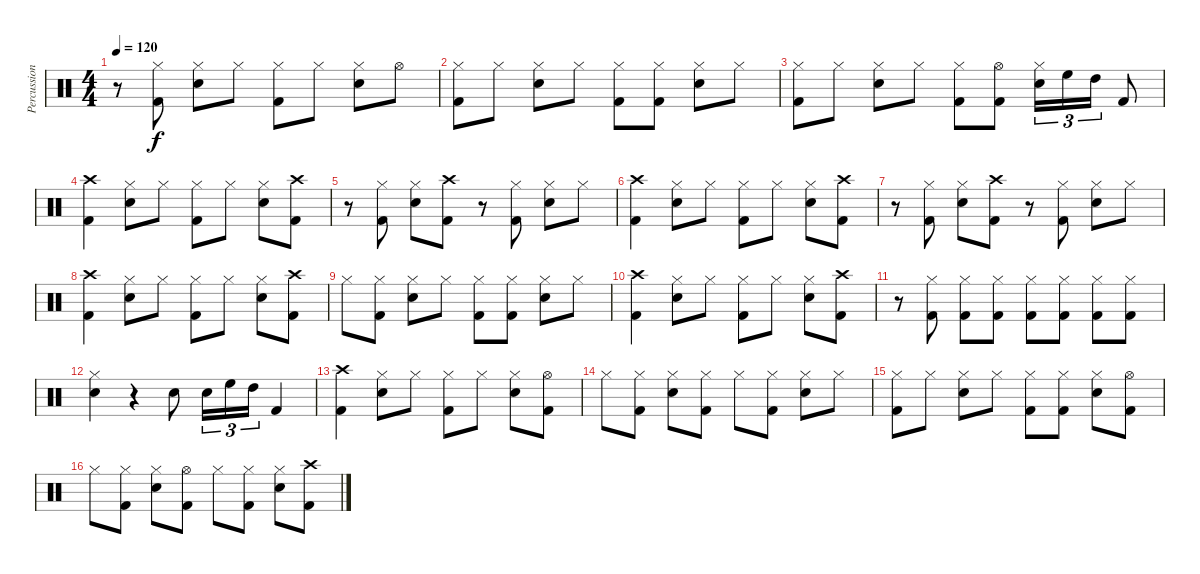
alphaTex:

\track ("Percussion" "Percussion") {instrument percussion}
\staff {score}
\articulation defaults
\ts (4 4)
\tempo 120
\clef neutral
\ks c
r.8{dy f} ("Hi-Hat (closed)" "Kick (hit) 2").8 ("Hi-Hat (closed)" "Snare (hit) 2").8 "Hi-Hat (closed)".8 ("Hi-Hat (closed)" "Kick (hit) 2").8 "Hi-Hat (closed)".8 ("Hi-Hat (closed)" "Snare (hit) 2").8 "Hi-Hat (open)".8 |
("Hi-Hat (closed)" "Kick (hit) 2").8 "Hi-Hat (closed)".8 ("Hi-Hat (closed)" "Snare (hit) 2").8 "Hi-Hat (closed)".8 ("Hi-Hat (closed)" "Kick (hit) 2").8 ("Hi-Hat (closed)" "Kick (hit) 2").8 ("Hi-Hat (closed)" "Snare (hit) 2").8 "Hi-Hat (closed)".8 |
("Hi-Hat (closed)" "Kick (hit) 2").8 "Hi-Hat (closed)".8 ("Hi-Hat (closed)" "Snare (hit) 2").8 "Hi-Hat (closed)".8 ("Hi-Hat (closed)" "Kick (hit) 2").8 ("Hi-Hat (open)" "Kick (hit) 2").8 ("Hi-Hat (closed)" "Snare (hit) 2").16{tu (3 2)} "High Floor Tom (hit)".16{tu (3 2)} "High Tom (hit)".16{tu (3 2)} "Kick (hit) 2".8 |
("Crash high (hit)" "Kick (hit) 2").4 ("Hi-Hat (closed)" "Snare (hit) 2").8 "Hi-Hat (closed)".8 ("Hi-Hat (closed)" "Kick (hit) 2").8 "Hi-Hat (closed)".8 ("Hi-Hat (closed)" "Snare (hit) 2").8 ("Crash high (hit)" "Kick (hit) 2").8 |
r.8 ("Hi-Hat (closed)" "Kick (hit) 2").8 ("Hi-Hat (closed)" "Snare (hit) 2").8 ("Crash high (hit)" "Kick (hit) 2").8 r.8 ("Hi-Hat (closed)" "Kick (hit) 2").8 ("Hi-Hat (closed)" "Snare (hit) 2").8 "Hi-Hat (closed)".8 |
("Crash high (hit)" "Kick (hit) 2").4 ("Hi-Hat (closed)" "Snare (hit) 2").8 "Hi-Hat (closed)".8 ("Hi-Hat (closed)" "Kick (hit) 2").8 "Hi-Hat (closed)".8 ("Hi-Hat (closed)" "Snare (hit) 2").8 ("Crash high (hit)" "Kick (hit) 2").8 |
r.8 ("Hi-Hat (closed)" "Kick (hit) 2").8 ("Hi-Hat (closed)" "Snare (hit) 2").8 ("Crash high (hit)" "Kick (hit) 2").8 r.8 ("Hi-Hat (closed)" "Kick (hit) 2").8 ("Hi-Hat (closed)" "Snare (hit) 2").8 "Hi-Hat (closed)".8 |
("Crash high (hit)" "Kick (hit) 2").4 ("Hi-Hat (closed)" "Snare (hit) 2").8 "Hi-Hat (closed)".8 ("Hi-Hat (closed)" "Kick (hit) 2").8 "Hi-Hat (closed)".8 ("Hi-Hat (closed)" "Snare (hit) 2").8 ("Crash high (hit)" "Kick (hit) 2").8 |
"Hi-Hat (closed)".8 ("Hi-Hat (closed)" "Kick (hit) 2").8 ("Hi-Hat (closed)" "Snare (hit) 2").8 "Hi-Hat (closed)".8 ("Hi-Hat (closed)" "Kick (hit) 2").8 ("Hi-Hat (closed)" "Kick (hit) 2").8 ("Hi-Hat (closed)" "Snare (hit) 2").8 "Hi-Hat (closed)".8 |
("Crash high (hit)" "Kick (hit) 2").4 ("Hi-Hat (closed)" "Snare (hit) 2").8 "Hi-Hat (closed)".8 ("Hi-Hat (closed)" "Kick (hit) 2").8 "Hi-Hat (closed)".8 ("Hi-Hat (closed)" "Snare (hit) 2").8 ("Crash high (hit)" "Kick (hit) 2").8 |
r.8 ("Hi-Hat (closed)" "Kick (hit) 2").8 ("Hi-Hat (closed)" "Kick (hit) 2").8 ("Hi-Hat (closed)" "Kick (hit) 2").8 ("Hi-Hat (closed)" "Kick (hit) 2").8 ("Hi-Hat (closed)" "Kick (hit) 2").8 ("Hi-Hat (closed)" "Kick (hit) 2").8 ("Hi-Hat (closed)" "Kick (hit) 2").8 |
("Hi-Hat (closed)" "Snare (hit) 2").4 r.4 "Snare (hit) 2".8 "Snare (hit) 2".16{tu (3 2)} "High Floor Tom (hit)".16{tu (3 2)} "High Tom (hit)".16{tu (3 2)} "Kick (hit) 2".4 |
("Crash high (hit)" "Kick (hit) 2").4 ("Hi-Hat (closed)" "Snare (hit) 2").8 "Hi-Hat (closed)".8 ("Hi-Hat (closed)" "Kick (hit) 2").8 "Hi-Hat (closed)".8 ("Hi-Hat (closed)" "Snare (hit) 2").8 ("Hi-Hat (open)" "Kick (hit) 2").8 |
"Hi-Hat (closed)".8 ("Hi-Hat (closed)" "Kick (hit) 2").8 ("Hi-Hat (closed)" "Snare (hit) 2").8 ("Hi-Hat (closed)" "Kick (hit) 2").8 "Hi-Hat (closed)".8 ("Hi-Hat (closed)" "Kick (hit) 2").8 ("Hi-Hat (closed)" "Snare (hit) 2").8 "Hi-Hat (closed)".8 |
("Hi-Hat (closed)" "Kick (hit) 2").8 "Hi-Hat (closed)".8 ("Hi-Hat (closed)" "Snare (hit) 2").8 "Hi-Hat (closed)".8 ("Hi-Hat (closed)" "Kick (hit) 2").8 ("Hi-Hat (closed)" "Kick (hit) 2").8 ("Hi-Hat (closed)" "Snare (hit) 2").8 ("Hi-Hat (open)" "Kick (hit) 2").8 |
"Hi-Hat (closed)".8 ("Hi-Hat (closed)" "Kick (hit) 2").8 ("Hi-Hat (closed)" "Snare (hit) 2").8 ("Hi-Hat (open)" "Kick (hit) 2").8 "Hi-Hat (closed)".8 ("Hi-Hat (closed)" "Kick (hit) 2").8 ("Hi-Hat (closed)" "Snare (hit) 2").8 ("Crash high (hit)" "Kick (hit) 2").8
